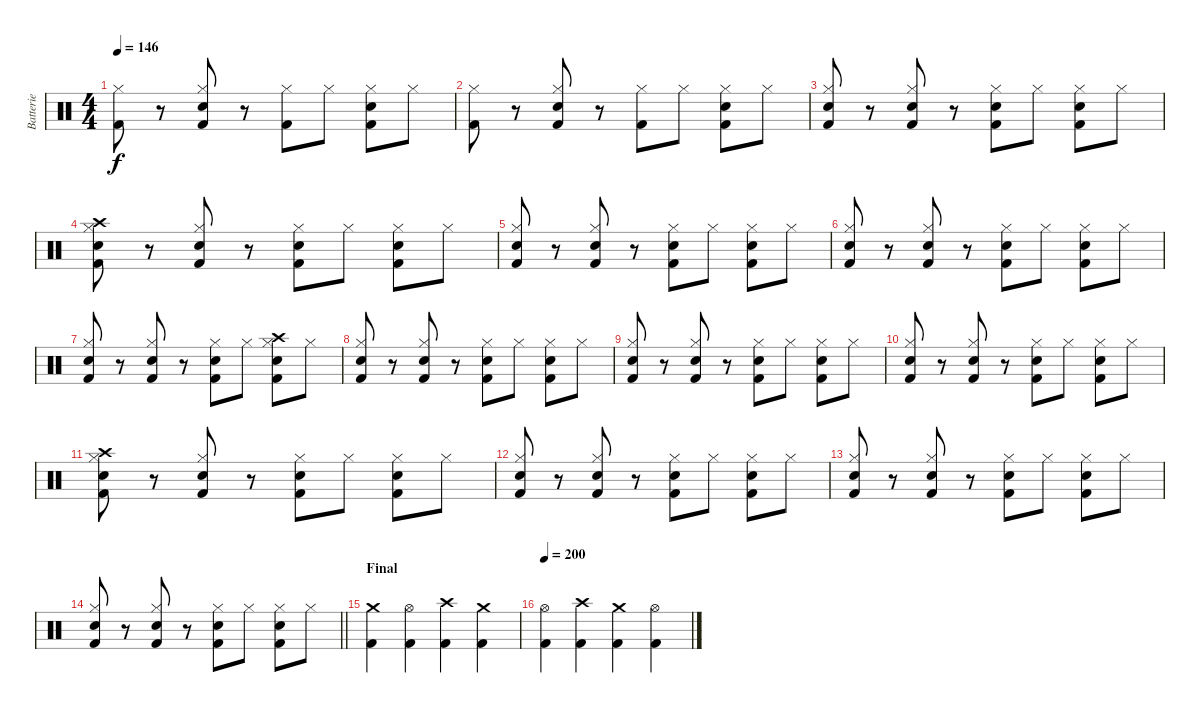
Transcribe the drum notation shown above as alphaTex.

\track ("Batterie" "Batterie") {instrument percussion}
\staff {score}
\articulation defaults
\ts (4 4)
\tempo 146
\clef neutral
\ks c
("Kick (hit) 2" "Hi-Hat (closed)").8{dy f} r.8 ("Kick (hit) 2" "Snare (hit) 2" "Hi-Hat (closed)").8 r.8 ("Kick (hit) 2" "Hi-Hat (closed)").8 "Hi-Hat (closed)".8 ("Kick (hit) 2" "Snare (hit) 2" "Hi-Hat (closed)").8 "Hi-Hat (closed)".8 |
("Kick (hit) 2" "Hi-Hat (closed)").8 r.8 ("Kick (hit) 2" "Snare (hit) 2" "Hi-Hat (closed)").8 r.8 ("Kick (hit) 2" "Hi-Hat (closed)").8 "Hi-Hat (closed)".8 ("Kick (hit) 2" "Snare (hit) 2" "Hi-Hat (closed)").8 "Hi-Hat (closed)".8 |
("Kick (hit) 2" "Snare (hit) 2" "Hi-Hat (closed)").8 r.8 ("Kick (hit) 2" "Snare (hit) 2" "Hi-Hat (closed)").8 r.8 ("Kick (hit) 2" "Snare (hit) 2" "Hi-Hat (closed)").8 "Hi-Hat (closed)".8 ("Kick (hit) 2" "Snare (hit) 2" "Hi-Hat (closed)").8 "Hi-Hat (closed)".8 |
("Kick (hit) 2" "Snare (hit) 2" "Crash high (hit)" "Hi-Hat (closed)").8 r.8 ("Kick (hit) 2" "Snare (hit) 2" "Hi-Hat (closed)").8 r.8 ("Kick (hit) 2" "Snare (hit) 2" "Hi-Hat (closed)").8 "Hi-Hat (closed)".8 ("Kick (hit) 2" "Snare (hit) 2" "Hi-Hat (closed)").8 "Hi-Hat (closed)".8 |
("Kick (hit) 2" "Snare (hit) 2" "Hi-Hat (closed)").8 r.8 ("Kick (hit) 2" "Snare (hit) 2" "Hi-Hat (closed)").8 r.8 ("Kick (hit) 2" "Snare (hit) 2" "Hi-Hat (closed)").8 "Hi-Hat (closed)".8 ("Kick (hit) 2" "Snare (hit) 2" "Hi-Hat (closed)").8 "Hi-Hat (closed)".8 |
("Kick (hit) 2" "Snare (hit) 2" "Hi-Hat (closed)").8 r.8 ("Kick (hit) 2" "Snare (hit) 2" "Hi-Hat (closed)").8 r.8 ("Kick (hit) 2" "Snare (hit) 2" "Hi-Hat (closed)").8 "Hi-Hat (closed)".8 ("Kick (hit) 2" "Snare (hit) 2" "Hi-Hat (closed)").8 "Hi-Hat (closed)".8 |
("Kick (hit) 2" "Snare (hit) 2" "Hi-Hat (closed)").8 r.8 ("Kick (hit) 2" "Snare (hit) 2" "Hi-Hat (closed)").8 r.8 ("Kick (hit) 2" "Snare (hit) 2" "Hi-Hat (closed)").8 "Hi-Hat (closed)".8 ("Kick (hit) 2" "Snare (hit) 2" "Crash high (hit)" "Hi-Hat (closed)").8 "Hi-Hat (closed)".8 |
("Kick (hit) 2" "Snare (hit) 2" "Hi-Hat (closed)").8 r.8 ("Kick (hit) 2" "Snare (hit) 2" "Hi-Hat (closed)").8 r.8 ("Kick (hit) 2" "Snare (hit) 2" "Hi-Hat (closed)").8 "Hi-Hat (closed)".8 ("Kick (hit) 2" "Snare (hit) 2" "Hi-Hat (closed)").8 "Hi-Hat (closed)".8 |
("Kick (hit) 2" "Snare (hit) 2" "Hi-Hat (closed)").8 r.8 ("Kick (hit) 2" "Snare (hit) 2" "Hi-Hat (closed)").8 r.8 ("Kick (hit) 2" "Snare (hit) 2" "Hi-Hat (closed)").8 "Hi-Hat (closed)".8 ("Kick (hit) 2" "Snare (hit) 2" "Hi-Hat (closed)").8 "Hi-Hat (closed)".8 |
("Kick (hit) 2" "Snare (hit) 2" "Hi-Hat (closed)").8 r.8 ("Kick (hit) 2" "Snare (hit) 2" "Hi-Hat (closed)").8 r.8 ("Kick (hit) 2" "Snare (hit) 2" "Hi-Hat (closed)").8 "Hi-Hat (closed)".8 ("Kick (hit) 2" "Snare (hit) 2" "Hi-Hat (closed)").8 "Hi-Hat (closed)".8 |
("Kick (hit) 2" "Snare (hit) 2" "Crash high (hit)" "Hi-Hat (closed)").8 r.8 ("Kick (hit) 2" "Snare (hit) 2" "Hi-Hat (closed)").8 r.8 ("Kick (hit) 2" "Snare (hit) 2" "Hi-Hat (closed)").8 "Hi-Hat (closed)".8 ("Kick (hit) 2" "Snare (hit) 2" "Hi-Hat (closed)").8 "Hi-Hat (closed)".8 |
("Kick (hit) 2" "Snare (hit) 2" "Hi-Hat (closed)").8 r.8 ("Kick (hit) 2" "Snare (hit) 2" "Hi-Hat (closed)").8 r.8 ("Kick (hit) 2" "Snare (hit) 2" "Hi-Hat (closed)").8 "Hi-Hat (closed)".8 ("Kick (hit) 2" "Snare (hit) 2" "Hi-Hat (closed)").8 "Hi-Hat (closed)".8 |
("Kick (hit) 2" "Snare (hit) 2" "Hi-Hat (closed)").8 r.8 ("Kick (hit) 2" "Snare (hit) 2" "Hi-Hat (closed)").8 r.8 ("Kick (hit) 2" "Snare (hit) 2" "Hi-Hat (closed)").8 "Hi-Hat (closed)".8 ("Kick (hit) 2" "Snare (hit) 2" "Hi-Hat (closed)").8 "Hi-Hat (closed)".8 |
\barLineRight lightlight
("Kick (hit) 2" "Snare (hit) 2" "Hi-Hat (closed)").8 r.8 ("Kick (hit) 2" "Snare (hit) 2" "Hi-Hat (closed)").8 r.8 ("Kick (hit) 2" "Snare (hit) 2" "Hi-Hat (closed)").8 "Hi-Hat (closed)".8 ("Kick (hit) 2" "Snare (hit) 2" "Hi-Hat (closed)").8 "Hi-Hat (closed)".8 |
\section ("" "Final")
("Kick (hit) 2" "Crash medium (hit)").4 ("Kick (hit) 2" "Hi-Hat (open)").4 ("Kick (hit) 2" "Crash high (hit)").4 ("Kick (hit) 2" "Crash medium (hit)").4 |
\tempo 200
("Kick (hit) 2" "Hi-Hat (open)").4 ("Kick (hit) 2" "Crash high (hit)").4 ("Kick (hit) 2" "Crash medium (hit)").4 ("Kick (hit) 2" "Hi-Hat (open)").4
